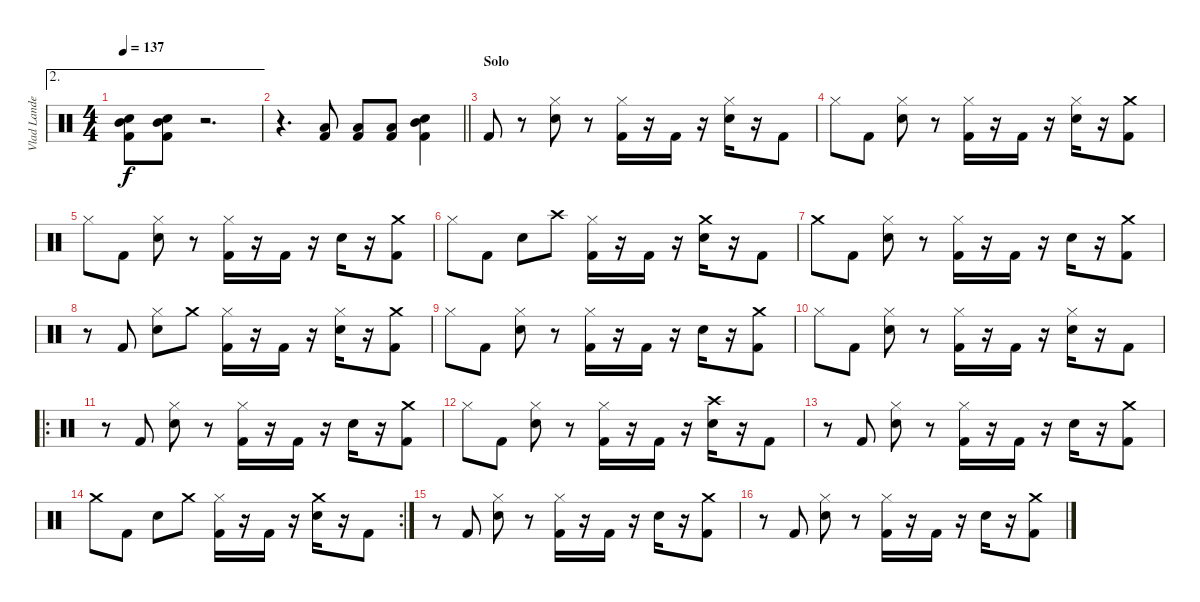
\track ("Vlad Landeros" "Vlad Lande") {instrument percussion}
\staff {score}
\articulation defaults
\ae 2
\ts (4 4)
\tempo 137
\clef neutral
\ks c
("Mid Tom (hit)" "Kick (hit) 2" "Electric Snare (hit)").8{dy f} ("Mid Tom (hit)" "Kick (hit) 2" "Electric Snare (hit)").8 r.2{d} |
\barLineRight lightlight
r.4{d} ("Kick (hit) 2" "Low Floor Tom (hit)").8 ("Kick (hit) 2" "Low Floor Tom (hit)").8 ("Kick (hit) 2" "Low Floor Tom (hit)").8 ("Kick (hit) 2" "Electric Snare (hit)" "Mid Tom (hit)").4 |
\section ("" "Solo")
"Kick (hit) 2".8 r.8 ("Electric Snare (hit)" "Hi-Hat (closed)").8 r.8 ("Kick (hit) 2" "Hi-Hat (closed)").16 r.16 "Kick (hit) 2".16 r.16 ("Electric Snare (hit)" "Hi-Hat (closed)").16 r.16 "Kick (hit) 2".8 |
"Hi-Hat (closed)".8 "Kick (hit) 2".8 ("Electric Snare (hit)" "Hi-Hat (closed)").8 r.8 ("Kick (hit) 2" "Hi-Hat (closed)").16 r.16 "Kick (hit) 2".16 r.16 ("Electric Snare (hit)" "Hi-Hat (closed)").16 r.16 ("Kick (hit) 2" "Crash medium (hit)").8 |
"Hi-Hat (closed)".8 "Kick (hit) 2".8 ("Electric Snare (hit)" "Hi-Hat (closed)").8 r.8 ("Kick (hit) 2" "Hi-Hat (closed)").16 r.16 "Kick (hit) 2".16 r.16 "Electric Snare (hit)".16 r.16 ("Kick (hit) 2" "Crash medium (hit)").8 |
"Hi-Hat (closed)".8 "Kick (hit) 2".8 "Electric Snare (hit)".8 "Crash high (hit)".8 ("Kick (hit) 2" "Hi-Hat (closed)").16 r.16 "Kick (hit) 2".16 r.16 ("Electric Snare (hit)" "Crash medium (hit)").16 r.16 "Kick (hit) 2".8 |
"Crash medium (hit)".8 "Kick (hit) 2".8 ("Electric Snare (hit)" "Hi-Hat (closed)").8 r.8 ("Kick (hit) 2" "Hi-Hat (closed)").16 r.16 "Kick (hit) 2".16 r.16 "Electric Snare (hit)".16 r.16 ("Kick (hit) 2" "Crash medium (hit)").8 |
r.8 "Kick (hit) 2".8 ("Electric Snare (hit)" "Hi-Hat (closed)").8 "Crash medium (hit)".8 ("Kick (hit) 2" "Hi-Hat (closed)").16 r.16 "Kick (hit) 2".16 r.16 ("Electric Snare (hit)" "Hi-Hat (closed)").16 r.16 ("Kick (hit) 2" "Crash medium (hit)").8 |
"Hi-Hat (closed)".8 "Kick (hit) 2".8 ("Electric Snare (hit)" "Hi-Hat (closed)").8 r.8 ("Kick (hit) 2" "Hi-Hat (closed)").16 r.16 "Kick (hit) 2".16 r.16 "Electric Snare (hit)".16 r.16 ("Kick (hit) 2" "Crash medium (hit)").8 |
"Hi-Hat (closed)".8 "Kick (hit) 2".8 ("Electric Snare (hit)" "Hi-Hat (closed)").8 r.8 ("Kick (hit) 2" "Hi-Hat (closed)").16 r.16 "Kick (hit) 2".16 r.16 ("Electric Snare (hit)" "Hi-Hat (closed)").16 r.16 "Kick (hit) 2".8 |
\ro
r.8 "Kick (hit) 2".8 ("Electric Snare (hit)" "Hi-Hat (closed)").8 r.8 ("Kick (hit) 2" "Hi-Hat (closed)").16 r.16 "Kick (hit) 2".16 r.16 "Electric Snare (hit)".16 r.16 ("Kick (hit) 2" "Crash medium (hit)").8 |
"Hi-Hat (closed)".8 "Kick (hit) 2".8 ("Electric Snare (hit)" "Hi-Hat (closed)").8 r.8 ("Kick (hit) 2" "Hi-Hat (closed)").16 r.16 "Kick (hit) 2".16 r.16 ("Electric Snare (hit)" "Crash high (hit)").16 r.16 "Kick (hit) 2".8 |
r.8 "Kick (hit) 2".8 ("Electric Snare (hit)" "Hi-Hat (closed)").8 r.8 ("Kick (hit) 2" "Hi-Hat (closed)").16 r.16 "Kick (hit) 2".16 r.16 "Electric Snare (hit)".16 r.16 ("Kick (hit) 2" "Crash medium (hit)").8 |
\rc 2 "Crash medium (hit)".8 "Kick (hit) 2".8 "Electric Snare (hit)".8 "Crash medium (hit)".8
("Kick (hit) 2" "Hi-Hat (closed)").16 r.16 "Kick (hit) 2".16 r.16 ("Electric Snare (hit)" "Crash medium (hit)").16 r.16 "Kick (hit) 2".8 |
r.8 "Kick (hit) 2".8 ("Electric Snare (hit)" "Hi-Hat (closed)").8 r.8 ("Kick (hit) 2" "Hi-Hat (closed)").16 r.16 "Kick (hit) 2".16 r.16 "Electric Snare (hit)".16 r.16 ("Kick (hit) 2" "Crash medium (hit)").8 |
r.8 "Kick (hit) 2".8 ("Electric Snare (hit)" "Hi-Hat (closed)").8 r.8 ("Kick (hit) 2" "Hi-Hat (closed)").16 r.16 "Kick (hit) 2".16 r.16 "Electric Snare (hit)".16 r.16 ("Kick (hit) 2" "Crash medium (hit)").8
